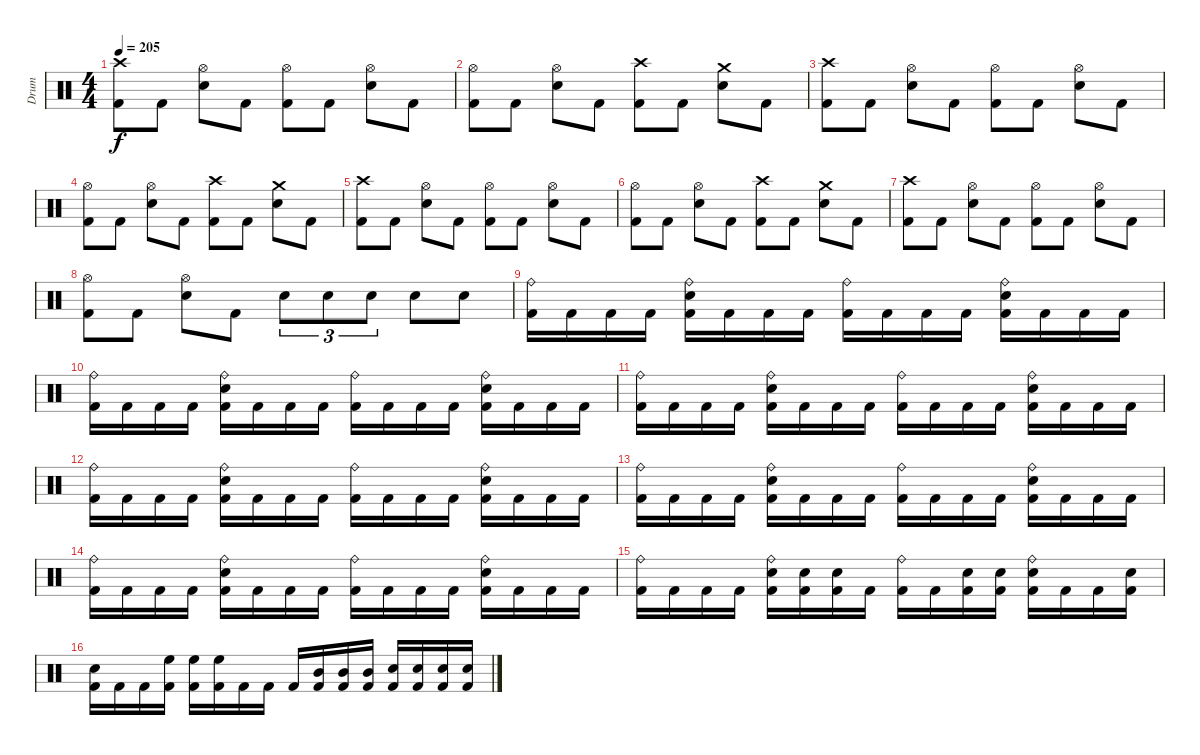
\track ("Drum" "Drum") {instrument percussion}
\staff {score}
\articulation defaults
\ts (4 4)
\tempo 205
\clef neutral
\ks c
("Kick (hit) 2" "Crash high (hit)").8{dy f} "Kick (hit) 2".8 ("Electric Snare (hit)" "Hi-Hat (open)").8 "Kick (hit) 2".8 ("Kick (hit) 2" "Hi-Hat (open)").8 "Kick (hit) 2".8 ("Electric Snare (hit)" "Hi-Hat (open)").8 "Kick (hit) 2".8 |
("Kick (hit) 2" "Hi-Hat (open)").8 "Kick (hit) 2".8 ("Electric Snare (hit)" "Hi-Hat (open)").8 "Kick (hit) 2".8 ("Kick (hit) 2" "Crash high (hit)").8 "Kick (hit) 2".8 ("Electric Snare (hit)" "Crash medium (hit)").8 "Kick (hit) 2".8 |
("Kick (hit) 2" "Crash high (hit)").8 "Kick (hit) 2".8 ("Electric Snare (hit)" "Hi-Hat (open)").8 "Kick (hit) 2".8 ("Kick (hit) 2" "Hi-Hat (open)").8 "Kick (hit) 2".8 ("Electric Snare (hit)" "Hi-Hat (open)").8 "Kick (hit) 2".8 |
("Kick (hit) 2" "Hi-Hat (open)").8 "Kick (hit) 2".8 ("Electric Snare (hit)" "Hi-Hat (open)").8 "Kick (hit) 2".8 ("Kick (hit) 2" "Crash high (hit)").8 "Kick (hit) 2".8 ("Electric Snare (hit)" "Crash medium (hit)").8 "Kick (hit) 2".8 |
("Kick (hit) 2" "Crash high (hit)").8 "Kick (hit) 2".8 ("Electric Snare (hit)" "Hi-Hat (open)").8 "Kick (hit) 2".8 ("Kick (hit) 2" "Hi-Hat (open)").8 "Kick (hit) 2".8 ("Electric Snare (hit)" "Hi-Hat (open)").8 "Kick (hit) 2".8 |
("Kick (hit) 2" "Hi-Hat (open)").8 "Kick (hit) 2".8 ("Electric Snare (hit)" "Hi-Hat (open)").8 "Kick (hit) 2".8 ("Kick (hit) 2" "Crash high (hit)").8 "Kick (hit) 2".8 ("Electric Snare (hit)" "Crash medium (hit)").8 "Kick (hit) 2".8 |
("Kick (hit) 2" "Crash high (hit)").8 "Kick (hit) 2".8 ("Electric Snare (hit)" "Hi-Hat (open)").8 "Kick (hit) 2".8 ("Kick (hit) 2" "Hi-Hat (open)").8 "Kick (hit) 2".8 ("Electric Snare (hit)" "Hi-Hat (open)").8 "Kick (hit) 2".8 |
("Kick (hit) 2" "Hi-Hat (open)").8 "Kick (hit) 2".8 ("Electric Snare (hit)" "Hi-Hat (open)").8 "Kick (hit) 2".8 "Electric Snare (hit)".8{tu (3 2)} "Electric Snare (hit)".8{tu (3 2)} "Electric Snare (hit)".8{tu (3 2)} "Electric Snare (hit)".8 "Electric Snare (hit)".8 |
("Kick (hit) 2" "Ride (bell)").16 "Kick (hit) 2".16 "Kick (hit) 2".16 "Kick (hit) 2".16 ("Kick (hit) 2" "Electric Snare (hit)" "Ride (bell)").16 "Kick (hit) 2".16 "Kick (hit) 2".16 "Kick (hit) 2".16 ("Kick (hit) 2" "Ride (bell)").16 "Kick (hit) 2".16 "Kick (hit) 2".16 "Kick (hit) 2".16 ("Kick (hit) 2" "Electric Snare (hit)" "Ride (bell)").16 "Kick (hit) 2".16 "Kick (hit) 2".16 "Kick (hit) 2".16 |
("Kick (hit) 2" "Ride (bell)").16 "Kick (hit) 2".16 "Kick (hit) 2".16 "Kick (hit) 2".16 ("Kick (hit) 2" "Electric Snare (hit)" "Ride (bell)").16 "Kick (hit) 2".16 "Kick (hit) 2".16 "Kick (hit) 2".16 ("Kick (hit) 2" "Ride (bell)").16 "Kick (hit) 2".16 "Kick (hit) 2".16 "Kick (hit) 2".16 ("Kick (hit) 2" "Electric Snare (hit)" "Ride (bell)").16 "Kick (hit) 2".16 "Kick (hit) 2".16 "Kick (hit) 2".16 |
("Kick (hit) 2" "Ride (bell)").16 "Kick (hit) 2".16 "Kick (hit) 2".16 "Kick (hit) 2".16 ("Kick (hit) 2" "Electric Snare (hit)" "Ride (bell)").16 "Kick (hit) 2".16 "Kick (hit) 2".16 "Kick (hit) 2".16 ("Kick (hit) 2" "Ride (bell)").16 "Kick (hit) 2".16 "Kick (hit) 2".16 "Kick (hit) 2".16 ("Kick (hit) 2" "Electric Snare (hit)" "Ride (bell)").16 "Kick (hit) 2".16 "Kick (hit) 2".16 "Kick (hit) 2".16 |
("Kick (hit) 2" "Ride (bell)").16 "Kick (hit) 2".16 "Kick (hit) 2".16 "Kick (hit) 2".16 ("Kick (hit) 2" "Electric Snare (hit)" "Ride (bell)").16 "Kick (hit) 2".16 "Kick (hit) 2".16 "Kick (hit) 2".16 ("Kick (hit) 2" "Ride (bell)").16 "Kick (hit) 2".16 "Kick (hit) 2".16 "Kick (hit) 2".16 ("Kick (hit) 2" "Electric Snare (hit)" "Ride (bell)").16 "Kick (hit) 2".16 "Kick (hit) 2".16 "Kick (hit) 2".16 |
("Kick (hit) 2" "Ride (bell)").16 "Kick (hit) 2".16 "Kick (hit) 2".16 "Kick (hit) 2".16 ("Kick (hit) 2" "Electric Snare (hit)" "Ride (bell)").16 "Kick (hit) 2".16 "Kick (hit) 2".16 "Kick (hit) 2".16 ("Kick (hit) 2" "Ride (bell)").16 "Kick (hit) 2".16 "Kick (hit) 2".16 "Kick (hit) 2".16 ("Kick (hit) 2" "Electric Snare (hit)" "Ride (bell)").16 "Kick (hit) 2".16 "Kick (hit) 2".16 "Kick (hit) 2".16 |
("Kick (hit) 2" "Ride (bell)").16 "Kick (hit) 2".16 "Kick (hit) 2".16 "Kick (hit) 2".16 ("Kick (hit) 2" "Electric Snare (hit)" "Ride (bell)").16 "Kick (hit) 2".16 "Kick (hit) 2".16 "Kick (hit) 2".16 ("Kick (hit) 2" "Ride (bell)").16 "Kick (hit) 2".16 "Kick (hit) 2".16 "Kick (hit) 2".16 ("Kick (hit) 2" "Electric Snare (hit)" "Ride (bell)").16 "Kick (hit) 2".16 "Kick (hit) 2".16 "Kick (hit) 2".16 |
("Kick (hit) 2" "Ride (bell)").16 "Kick (hit) 2".16 "Kick (hit) 2".16 "Kick (hit) 2".16 ("Kick (hit) 2" "Electric Snare (hit)" "Ride (bell)").16 ("Kick (hit) 2" "Electric Snare (hit)").16 ("Kick (hit) 2" "Electric Snare (hit)").16 "Kick (hit) 2".16 ("Kick (hit) 2" "Ride (bell)").16 "Kick (hit) 2".16 ("Kick (hit) 2" "Electric Snare (hit)").16 ("Kick (hit) 2" "Electric Snare (hit)").16 ("Kick (hit) 2" "Electric Snare (hit)" "Ride (bell)").16 "Kick (hit) 2".16 "Kick (hit) 2".16 ("Kick (hit) 2" "Electric Snare (hit)").16 |
("Kick (hit) 2" "Electric Snare (hit)").16 "Kick (hit) 2".16 "Kick (hit) 2".16 ("Kick (hit) 2" "High Floor Tom (hit)").16 ("Kick (hit) 2" "High Floor Tom (hit)").16 ("Kick (hit) 2" "High Floor Tom (hit)").16 "Kick (hit) 2".16 "Kick (hit) 2".16 "Kick (hit) 2".16 ("Kick (hit) 2" "Mid Tom (hit)").16 ("Kick (hit) 2" "Mid Tom (hit)").16 ("Kick (hit) 2" "Mid Tom (hit)").16 ("Kick (hit) 2" "Electric Snare (hit)").16 ("Kick (hit) 2" "Electric Snare (hit)").16 ("Kick (hit) 2" "Electric Snare (hit)").16 ("Kick (hit) 2" "Electric Snare (hit)").16
